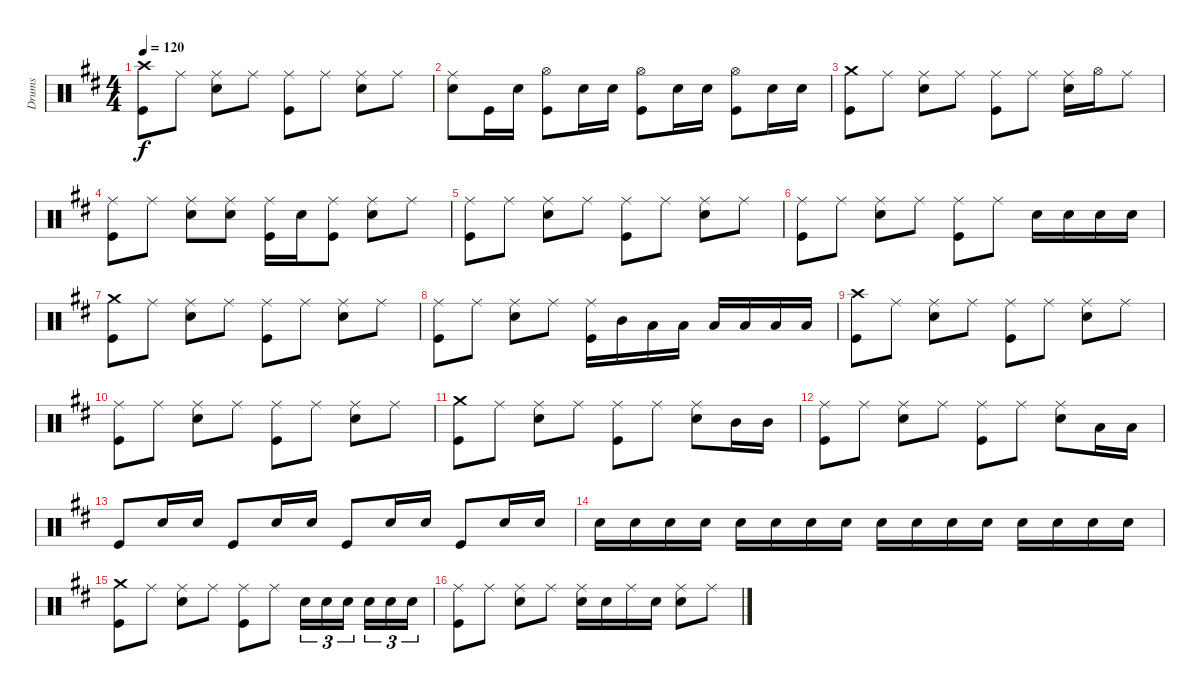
\track ("Drums" "Drums") {instrument percussion}
\staff {score}
\articulation defaults
\ts (4 4)
\tempo 120
\clef neutral
\ks d
("Crash high (hit)" "Kick (hit)").8{dy f} "Ride (middle)".8 ("Ride (middle)" "Snare (hit) 2").8 "Ride (middle)".8 ("Ride (middle)" "Kick (hit)").8 "Ride (middle)".8 ("Ride (middle)" "Snare (hit) 2").8 "Ride (middle)".8 |
("Ride (middle)" "Snare (hit) 2").8 "Kick (hit)".16 "Snare (hit) 2".16 ("Hi-Hat (open)" "Kick (hit)").8 "Snare (hit) 2".16 "Snare (hit) 2".16 ("Hi-Hat (open)" "Kick (hit)").8 "Snare (hit) 2".16 "Snare (hit) 2".16 ("Hi-Hat (open)" "Kick (hit)").8 "Snare (hit) 2".16 "Snare (hit) 2".16 |
("Crash medium (hit)" "Kick (hit)").8 "Ride (middle)".8 ("Ride (middle)" "Snare (hit) 2").8 "Ride (middle)".8 ("Ride (middle)" "Kick (hit)").8 "Ride (middle)".8 ("Ride (middle)" "Snare (hit) 2").16 "Hi-Hat (open)".16 "Ride (middle)".8 |
("Ride (middle)" "Kick (hit)").8 "Ride (middle)".8 ("Ride (middle)" "Snare (hit) 2").8 ("Ride (middle)" "Snare (hit) 2").8 ("Ride (middle)" "Kick (hit)").16 "Snare (hit) 2".16 ("Ride (middle)" "Kick (hit)").8 ("Ride (middle)" "Snare (hit) 2").8 "Ride (middle)".8 |
("Ride (middle)" "Kick (hit)").8 "Ride (middle)".8 ("Ride (middle)" "Snare (hit) 2").8 "Ride (middle)".8 ("Ride (middle)" "Kick (hit)").8 "Ride (middle)".8 ("Ride (middle)" "Snare (hit) 2").8 "Ride (middle)".8 |
("Ride (middle)" "Kick (hit)").8 "Ride (middle)".8 ("Ride (middle)" "Snare (hit) 2").8 "Ride (middle)".8 ("Ride (middle)" "Kick (hit)").8 "Ride (middle)".8 "Snare (hit) 2".16 "Snare (hit) 2".16 "Snare (hit) 2".16 "Snare (hit) 2".16 |
("Crash medium (hit)" "Kick (hit)").8 "Ride (middle)".8 ("Ride (middle)" "Snare (hit) 2").8 "Ride (middle)".8 ("Ride (middle)" "Kick (hit)").8 "Ride (middle)".8 ("Ride (middle)" "Snare (hit) 2").8 "Ride (middle)".8 |
("Ride (middle)" "Kick (hit)").8 "Ride (middle)".8 ("Ride (middle)" "Snare (hit) 2").8 "Ride (middle)".8 ("Ride (middle)" "Kick (hit)").16 "Mid Tom (hit)".16 "Low Tom (hit)".16 "Low Tom (hit)".16 "Low Tom (hit)".16 "Low Tom (hit)".16 "Low Tom (hit)".16 "Low Tom (hit)".16 |
("Crash high (hit)" "Kick (hit)").8 "Ride (middle)".8 ("Ride (middle)" "Snare (hit) 2").8 "Ride (middle)".8 ("Ride (middle)" "Kick (hit)").8 "Ride (middle)".8 ("Ride (middle)" "Snare (hit) 2").8 "Ride (middle)".8 |
("Ride (middle)" "Kick (hit)").8 "Ride (middle)".8 ("Ride (middle)" "Snare (hit) 2").8 "Ride (middle)".8 ("Ride (middle)" "Kick (hit)").8 "Ride (middle)".8 ("Ride (middle)" "Snare (hit) 2").8 "Ride (middle)".8 |
("Crash medium (hit)" "Kick (hit)").8 "Ride (middle)".8 ("Ride (middle)" "Snare (hit) 2").8 "Ride (middle)".8 ("Ride (middle)" "Kick (hit)").8 "Ride (middle)".8 ("Ride (middle)" "Snare (hit) 2").8 "Mid Tom (hit)".16 "Mid Tom (hit)".16 |
("Ride (middle)" "Kick (hit)").8 "Ride (middle)".8 ("Ride (middle)" "Snare (hit) 2").8 "Ride (middle)".8 ("Ride (middle)" "Kick (hit)").8 "Ride (middle)".8 ("Ride (middle)" "Snare (hit) 2").8 "Low Tom (hit)".16 "Low Tom (hit)".16 |
"Kick (hit)".8 "Snare (hit) 2".16 "Snare (hit) 2".16 "Kick (hit)".8 "Snare (hit) 2".16 "Snare (hit) 2".16 "Kick (hit)".8 "Snare (hit) 2".16 "Snare (hit) 2".16 "Kick (hit)".8 "Snare (hit) 2".16 "Snare (hit) 2".16 |
"Snare (hit) 2".16 "Snare (hit) 2".16 "Snare (hit) 2".16 "Snare (hit) 2".16 "Snare (hit) 2".16 "Snare (hit) 2".16 "Snare (hit) 2".16 "Snare (hit) 2".16 "Snare (hit) 2".16 "Snare (hit) 2".16 "Snare (hit) 2".16 "Snare (hit) 2".16 "Snare (hit) 2".16 "Snare (hit) 2".16 "Snare (hit) 2".16 "Snare (hit) 2".16 |
("Crash medium (hit)" "Kick (hit)").8 "Ride (middle)".8 ("Ride (middle)" "Snare (hit) 2").8 "Ride (middle)".8 ("Ride (middle)" "Kick (hit)").8 "Ride (middle)".8 "Snare (hit) 2".16{tu (3 2)} "Snare (hit) 2".16{tu (3 2)} "Snare (hit) 2".16{tu (3 2) beam splitsecondary} "Snare (hit) 2".16{tu (3 2)} "Snare (hit) 2".16{tu (3 2)} "Snare (hit) 2".16{tu (3 2)} |
("Ride (middle)" "Kick (hit)").8 "Ride (middle)".8 ("Ride (middle)" "Snare (hit) 2").8 "Ride (middle)".8 ("Ride (middle)" "Snare (hit) 2").16 "Snare (hit) 2".16 "Ride (middle)".16 "Snare (hit) 2".16 ("Ride (middle)" "Snare (hit) 2").8 "Ride (middle)".8
